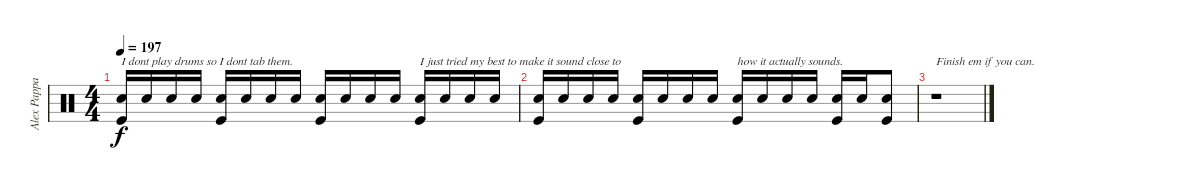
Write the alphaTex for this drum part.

\track ("Alex Pappas" "Alex Pappa") {instrument percussion}
\staff {score}
\articulation defaults
\ts (4 4)
\tempo 197
\clef neutral
\ks c
("Snare (hit) 2" "Kick (hit)").16{txt "I dont play drums so I dont tab them." dy f} "Snare (hit) 2".16 "Snare (hit) 2".16 "Snare (hit) 2".16 ("Snare (hit) 2" "Kick (hit)").16 "Snare (hit) 2".16 "Snare (hit) 2".16 "Snare (hit) 2".16 ("Snare (hit) 2" "Kick (hit)").16 "Snare (hit) 2".16 "Snare (hit) 2".16 "Snare (hit) 2".16 ("Snare (hit) 2" "Kick (hit)").16{txt "I just tried my best to make it sound close to "} "Snare (hit) 2".16 "Snare (hit) 2".16 "Snare (hit) 2".16 |
("Snare (hit) 2" "Kick (hit)").16 "Snare (hit) 2".16 "Snare (hit) 2".16 "Snare (hit) 2".16 ("Snare (hit) 2" "Kick (hit)").16 "Snare (hit) 2".16 "Snare (hit) 2".16 "Snare (hit) 2".16 ("Snare (hit) 2" "Kick (hit)").16{txt "how it actually sounds."} "Snare (hit) 2".16 "Snare (hit) 2".16 "Snare (hit) 2".16 ("Snare (hit) 2" "Kick (hit)").16 "Snare (hit) 2".16 ("Snare (hit) 2" "Kick (hit)").8 |
r.1{txt "Finish em if you can."}
